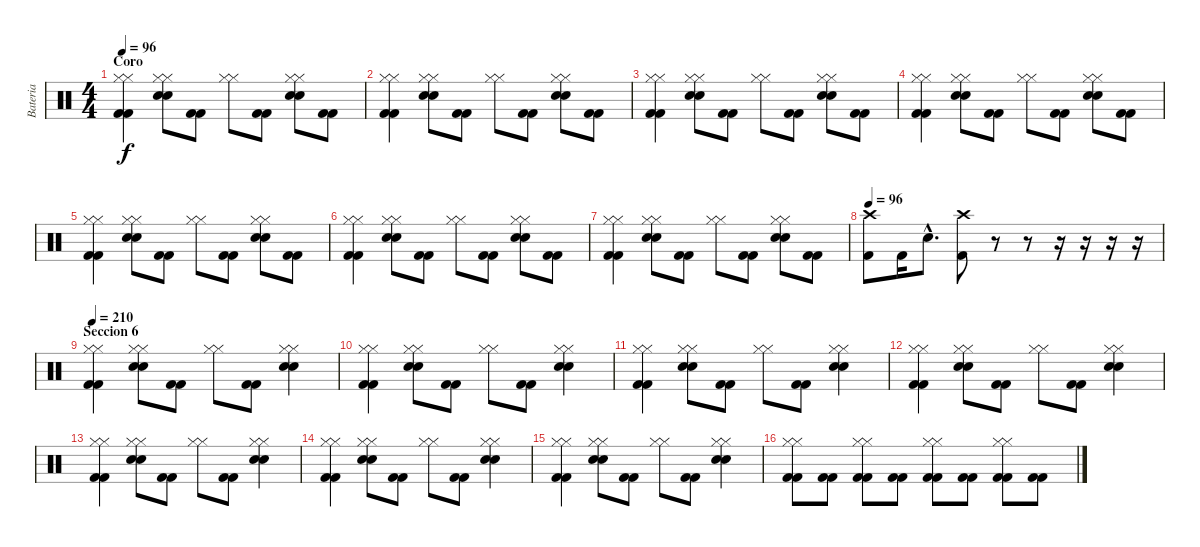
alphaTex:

\track ("Bateria" "Bateria") {instrument percussion}
\staff {score}
\articulation defaults
\ts (4 4)
\section ("" "Coro")
\tempo 96
\clef neutral
\ks c
("Hi-Hat (closed)" "Hi-Hat (closed)" "Kick (hit) 2" "Kick (hit) 2").4{dy f} ("Hi-Hat (closed)" "Hi-Hat (closed)" "Snare (hit) 2" "Snare (hit) 2").8 ("Kick (hit) 2" "Kick (hit) 2").8 ("Hi-Hat (closed)" "Hi-Hat (closed)").8 ("Kick (hit) 2" "Kick (hit) 2").8 ("Hi-Hat (closed)" "Hi-Hat (closed)" "Snare (hit) 2" "Snare (hit) 2").8 ("Kick (hit) 2" "Kick (hit) 2").8 |
("Hi-Hat (closed)" "Hi-Hat (closed)" "Kick (hit) 2" "Kick (hit) 2").4 ("Hi-Hat (closed)" "Hi-Hat (closed)" "Snare (hit) 2" "Snare (hit) 2").8 ("Kick (hit) 2" "Kick (hit) 2").8 ("Hi-Hat (closed)" "Hi-Hat (closed)").8 ("Kick (hit) 2" "Kick (hit) 2").8 ("Hi-Hat (closed)" "Hi-Hat (closed)" "Snare (hit) 2" "Snare (hit) 2").8 ("Kick (hit) 2" "Kick (hit) 2").8 |
("Hi-Hat (closed)" "Hi-Hat (closed)" "Kick (hit) 2" "Kick (hit) 2").4 ("Hi-Hat (closed)" "Hi-Hat (closed)" "Snare (hit) 2" "Snare (hit) 2").8 ("Kick (hit) 2" "Kick (hit) 2").8 ("Hi-Hat (closed)" "Hi-Hat (closed)").8 ("Kick (hit) 2" "Kick (hit) 2").8 ("Hi-Hat (closed)" "Hi-Hat (closed)" "Snare (hit) 2" "Snare (hit) 2").8 ("Kick (hit) 2" "Kick (hit) 2").8 |
("Hi-Hat (closed)" "Hi-Hat (closed)" "Kick (hit) 2" "Kick (hit) 2").4 ("Hi-Hat (closed)" "Hi-Hat (closed)" "Snare (hit) 2" "Snare (hit) 2").8 ("Kick (hit) 2" "Kick (hit) 2").8 ("Hi-Hat (closed)" "Hi-Hat (closed)").8 ("Kick (hit) 2" "Kick (hit) 2").8 ("Hi-Hat (closed)" "Hi-Hat (closed)" "Snare (hit) 2" "Snare (hit) 2").8 ("Kick (hit) 2" "Kick (hit) 2").8 |
("Hi-Hat (closed)" "Hi-Hat (closed)" "Kick (hit) 2" "Kick (hit) 2").4 ("Hi-Hat (closed)" "Hi-Hat (closed)" "Snare (hit) 2" "Snare (hit) 2").8 ("Kick (hit) 2" "Kick (hit) 2").8 ("Hi-Hat (closed)" "Hi-Hat (closed)").8 ("Kick (hit) 2" "Kick (hit) 2").8 ("Hi-Hat (closed)" "Hi-Hat (closed)" "Snare (hit) 2" "Snare (hit) 2").8 ("Kick (hit) 2" "Kick (hit) 2").8 |
("Hi-Hat (closed)" "Hi-Hat (closed)" "Kick (hit) 2" "Kick (hit) 2").4 ("Hi-Hat (closed)" "Hi-Hat (closed)" "Snare (hit) 2" "Snare (hit) 2").8 ("Kick (hit) 2" "Kick (hit) 2").8 ("Hi-Hat (closed)" "Hi-Hat (closed)").8 ("Kick (hit) 2" "Kick (hit) 2").8 ("Hi-Hat (closed)" "Hi-Hat (closed)" "Snare (hit) 2" "Snare (hit) 2").8 ("Kick (hit) 2" "Kick (hit) 2").8 |
("Hi-Hat (closed)" "Hi-Hat (closed)" "Kick (hit) 2" "Kick (hit) 2").4 ("Hi-Hat (closed)" "Hi-Hat (closed)" "Snare (hit) 2" "Snare (hit) 2").8 ("Kick (hit) 2" "Kick (hit) 2").8 ("Hi-Hat (closed)" "Hi-Hat (closed)").8 ("Kick (hit) 2" "Kick (hit) 2").8 ("Hi-Hat (closed)" "Hi-Hat (closed)" "Snare (hit) 2" "Snare (hit) 2").8 ("Kick (hit) 2" "Kick (hit) 2").8 |
\tempo 96
("Crash high (hit)" "Kick (hit) 2").8 "Kick (hit) 2".16 "Snare (hit) 2"{hac}.8{d} ("Crash high (hit)" "Kick (hit) 2").8 r.8 r.8 r.16 r.16 r.16 r.16 |
\section ("" "Seccion 6")
\tempo 210
("Hi-Hat (closed)" "Hi-Hat (closed)" "Kick (hit) 2" "Kick (hit) 2").4 ("Hi-Hat (closed)" "Hi-Hat (closed)" "Snare (hit) 2" "Snare (hit) 2").8 ("Kick (hit) 2" "Kick (hit) 2").8 ("Hi-Hat (closed)" "Hi-Hat (closed)").8 ("Kick (hit) 2" "Kick (hit) 2").8 ("Hi-Hat (closed)" "Hi-Hat (closed)" "Snare (hit) 2" "Snare (hit) 2").4 |
("Hi-Hat (closed)" "Hi-Hat (closed)" "Kick (hit) 2" "Kick (hit) 2").4 ("Hi-Hat (closed)" "Hi-Hat (closed)" "Snare (hit) 2" "Snare (hit) 2").8 ("Kick (hit) 2" "Kick (hit) 2").8 ("Hi-Hat (closed)" "Hi-Hat (closed)").8 ("Kick (hit) 2" "Kick (hit) 2").8 ("Hi-Hat (closed)" "Hi-Hat (closed)" "Snare (hit) 2" "Snare (hit) 2").4 |
("Hi-Hat (closed)" "Hi-Hat (closed)" "Kick (hit) 2" "Kick (hit) 2").4 ("Hi-Hat (closed)" "Hi-Hat (closed)" "Snare (hit) 2" "Snare (hit) 2").8 ("Kick (hit) 2" "Kick (hit) 2").8 ("Hi-Hat (closed)" "Hi-Hat (closed)").8 ("Kick (hit) 2" "Kick (hit) 2").8 ("Hi-Hat (closed)" "Hi-Hat (closed)" "Snare (hit) 2" "Snare (hit) 2").4 |
("Hi-Hat (closed)" "Hi-Hat (closed)" "Kick (hit) 2" "Kick (hit) 2").4 ("Hi-Hat (closed)" "Hi-Hat (closed)" "Snare (hit) 2" "Snare (hit) 2").8 ("Kick (hit) 2" "Kick (hit) 2").8 ("Hi-Hat (closed)" "Hi-Hat (closed)").8 ("Kick (hit) 2" "Kick (hit) 2").8 ("Hi-Hat (closed)" "Hi-Hat (closed)" "Snare (hit) 2" "Snare (hit) 2").4 |
("Hi-Hat (closed)" "Hi-Hat (closed)" "Kick (hit) 2" "Kick (hit) 2").4 ("Hi-Hat (closed)" "Hi-Hat (closed)" "Snare (hit) 2" "Snare (hit) 2").8 ("Kick (hit) 2" "Kick (hit) 2").8 ("Hi-Hat (closed)" "Hi-Hat (closed)").8 ("Kick (hit) 2" "Kick (hit) 2").8 ("Hi-Hat (closed)" "Hi-Hat (closed)" "Snare (hit) 2" "Snare (hit) 2").4 |
("Hi-Hat (closed)" "Hi-Hat (closed)" "Kick (hit) 2" "Kick (hit) 2").4 ("Hi-Hat (closed)" "Hi-Hat (closed)" "Snare (hit) 2" "Snare (hit) 2").8 ("Kick (hit) 2" "Kick (hit) 2").8 ("Hi-Hat (closed)" "Hi-Hat (closed)").8 ("Kick (hit) 2" "Kick (hit) 2").8 ("Hi-Hat (closed)" "Hi-Hat (closed)" "Snare (hit) 2" "Snare (hit) 2").4 |
("Hi-Hat (closed)" "Hi-Hat (closed)" "Kick (hit) 2" "Kick (hit) 2").4 ("Hi-Hat (closed)" "Hi-Hat (closed)" "Snare (hit) 2" "Snare (hit) 2").8 ("Kick (hit) 2" "Kick (hit) 2").8 ("Hi-Hat (closed)" "Hi-Hat (closed)").8 ("Kick (hit) 2" "Kick (hit) 2").8 ("Hi-Hat (closed)" "Hi-Hat (closed)" "Snare (hit) 2" "Snare (hit) 2").4 |
("Hi-Hat (closed)" "Hi-Hat (closed)" "Kick (hit) 2" "Kick (hit) 2").8 ("Kick (hit) 2" "Kick (hit) 2").8 ("Hi-Hat (closed)" "Hi-Hat (closed)" "Kick (hit) 2" "Kick (hit) 2").8 ("Kick (hit) 2" "Kick (hit) 2").8 ("Hi-Hat (closed)" "Hi-Hat (closed)" "Kick (hit) 2" "Kick (hit) 2").8 ("Kick (hit) 2" "Kick (hit) 2").8 ("Hi-Hat (closed)" "Hi-Hat (closed)" "Kick (hit) 2" "Kick (hit) 2").8 ("Kick (hit) 2" "Kick (hit) 2").8
